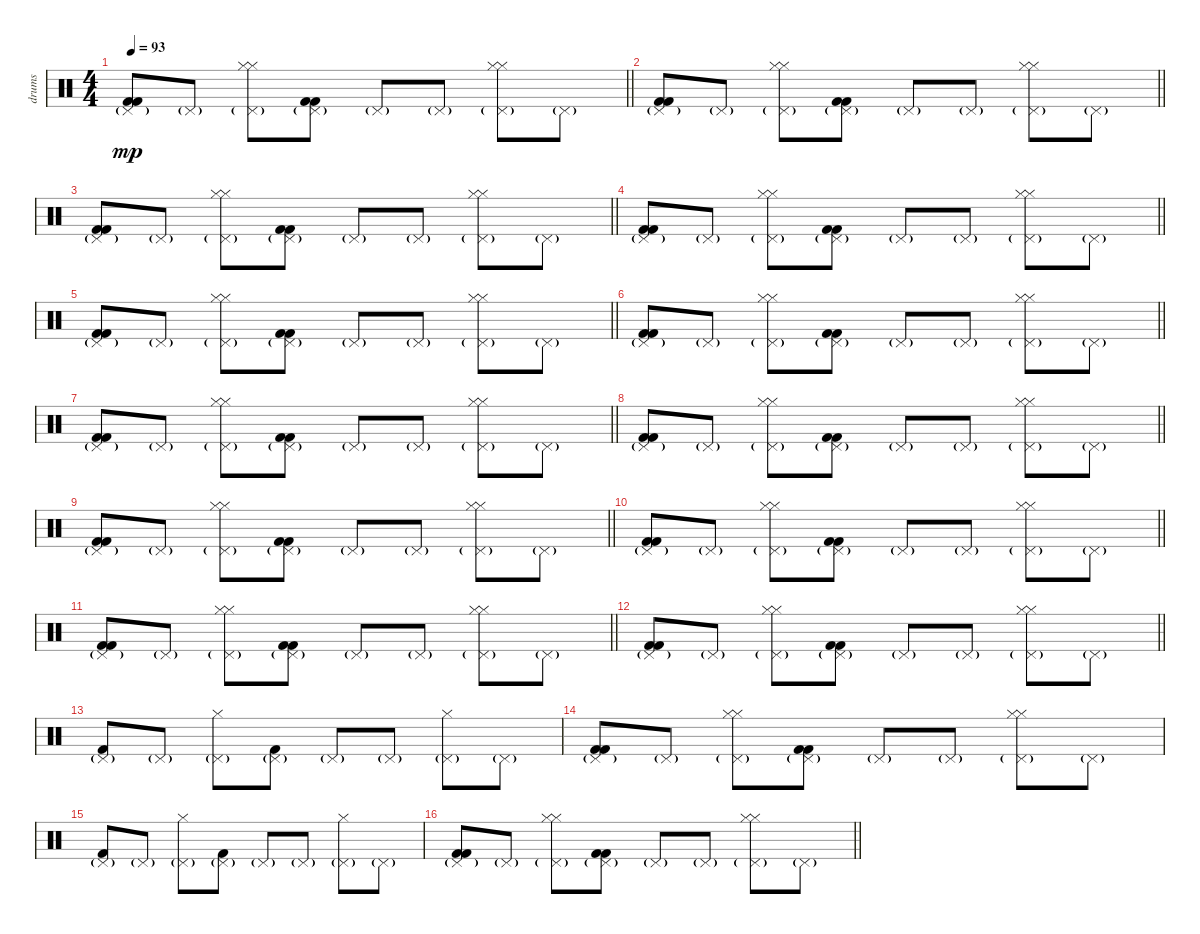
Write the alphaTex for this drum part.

\track ("drums" "drums") {instrument percussion}
\staff {score}
\articulation defaults
\ts (4 4)
\tempo 93
\clef neutral
\barLineRight lightlight
\ks c
("Kick (hit) 2" "Kick (hit) 2" "Pedal Hi-Hat (hit)"{g}).8{dy mp} "Pedal Hi-Hat (hit)"{g}.8 ("Hi-Hat (closed)" "Hi-Hat (closed)" "Pedal Hi-Hat (hit)"{g}).8 ("Kick (hit) 2" "Kick (hit) 2" "Pedal Hi-Hat (hit)"{g}).8 "Pedal Hi-Hat (hit)"{g}.8 "Pedal Hi-Hat (hit)"{g}.8 ("Hi-Hat (closed)" "Hi-Hat (closed)" "Pedal Hi-Hat (hit)"{g}).8 "Pedal Hi-Hat (hit)"{g}.8 |
\barLineRight lightlight
("Kick (hit) 2" "Kick (hit) 2" "Pedal Hi-Hat (hit)"{g}).8 "Pedal Hi-Hat (hit)"{g}.8 ("Hi-Hat (closed)" "Hi-Hat (closed)" "Pedal Hi-Hat (hit)"{g}).8 ("Kick (hit) 2" "Kick (hit) 2" "Pedal Hi-Hat (hit)"{g}).8 "Pedal Hi-Hat (hit)"{g}.8 "Pedal Hi-Hat (hit)"{g}.8 ("Hi-Hat (closed)" "Hi-Hat (closed)" "Pedal Hi-Hat (hit)"{g}).8 "Pedal Hi-Hat (hit)"{g}.8 |
\barLineRight lightlight
("Kick (hit) 2" "Kick (hit) 2" "Pedal Hi-Hat (hit)"{g}).8 "Pedal Hi-Hat (hit)"{g}.8 ("Hi-Hat (closed)" "Hi-Hat (closed)" "Pedal Hi-Hat (hit)"{g}).8 ("Kick (hit) 2" "Kick (hit) 2" "Pedal Hi-Hat (hit)"{g}).8 "Pedal Hi-Hat (hit)"{g}.8 "Pedal Hi-Hat (hit)"{g}.8 ("Hi-Hat (closed)" "Hi-Hat (closed)" "Pedal Hi-Hat (hit)"{g}).8 "Pedal Hi-Hat (hit)"{g}.8 |
\barLineRight lightlight
("Kick (hit) 2" "Kick (hit) 2" "Pedal Hi-Hat (hit)"{g}).8 "Pedal Hi-Hat (hit)"{g}.8 ("Hi-Hat (closed)" "Hi-Hat (closed)" "Pedal Hi-Hat (hit)"{g}).8 ("Kick (hit) 2" "Kick (hit) 2" "Pedal Hi-Hat (hit)"{g}).8 "Pedal Hi-Hat (hit)"{g}.8 "Pedal Hi-Hat (hit)"{g}.8 ("Hi-Hat (closed)" "Hi-Hat (closed)" "Pedal Hi-Hat (hit)"{g}).8 "Pedal Hi-Hat (hit)"{g}.8 |
\barLineRight lightlight
("Kick (hit) 2" "Kick (hit) 2" "Pedal Hi-Hat (hit)"{g}).8 "Pedal Hi-Hat (hit)"{g}.8 ("Hi-Hat (closed)" "Hi-Hat (closed)" "Pedal Hi-Hat (hit)"{g}).8 ("Kick (hit) 2" "Kick (hit) 2" "Pedal Hi-Hat (hit)"{g}).8 "Pedal Hi-Hat (hit)"{g}.8 "Pedal Hi-Hat (hit)"{g}.8 ("Hi-Hat (closed)" "Hi-Hat (closed)" "Pedal Hi-Hat (hit)"{g}).8 "Pedal Hi-Hat (hit)"{g}.8 |
\barLineRight lightlight
("Kick (hit) 2" "Kick (hit) 2" "Pedal Hi-Hat (hit)"{g}).8 "Pedal Hi-Hat (hit)"{g}.8 ("Hi-Hat (closed)" "Hi-Hat (closed)" "Pedal Hi-Hat (hit)"{g}).8 ("Kick (hit) 2" "Kick (hit) 2" "Pedal Hi-Hat (hit)"{g}).8 "Pedal Hi-Hat (hit)"{g}.8 "Pedal Hi-Hat (hit)"{g}.8 ("Hi-Hat (closed)" "Hi-Hat (closed)" "Pedal Hi-Hat (hit)"{g}).8 "Pedal Hi-Hat (hit)"{g}.8 |
\barLineRight lightlight
("Kick (hit) 2" "Kick (hit) 2" "Pedal Hi-Hat (hit)"{g}).8 "Pedal Hi-Hat (hit)"{g}.8 ("Hi-Hat (closed)" "Hi-Hat (closed)" "Pedal Hi-Hat (hit)"{g}).8 ("Kick (hit) 2" "Kick (hit) 2" "Pedal Hi-Hat (hit)"{g}).8 "Pedal Hi-Hat (hit)"{g}.8 "Pedal Hi-Hat (hit)"{g}.8 ("Hi-Hat (closed)" "Hi-Hat (closed)" "Pedal Hi-Hat (hit)"{g}).8 "Pedal Hi-Hat (hit)"{g}.8 |
\barLineRight lightlight
("Kick (hit) 2" "Kick (hit) 2" "Pedal Hi-Hat (hit)"{g}).8 "Pedal Hi-Hat (hit)"{g}.8 ("Hi-Hat (closed)" "Hi-Hat (closed)" "Pedal Hi-Hat (hit)"{g}).8 ("Kick (hit) 2" "Kick (hit) 2" "Pedal Hi-Hat (hit)"{g}).8 "Pedal Hi-Hat (hit)"{g}.8 "Pedal Hi-Hat (hit)"{g}.8 ("Hi-Hat (closed)" "Hi-Hat (closed)" "Pedal Hi-Hat (hit)"{g}).8 "Pedal Hi-Hat (hit)"{g}.8 |
\barLineRight lightlight
("Kick (hit) 2" "Kick (hit) 2" "Pedal Hi-Hat (hit)"{g}).8 "Pedal Hi-Hat (hit)"{g}.8 ("Hi-Hat (closed)" "Hi-Hat (closed)" "Pedal Hi-Hat (hit)"{g}).8 ("Kick (hit) 2" "Kick (hit) 2" "Pedal Hi-Hat (hit)"{g}).8 "Pedal Hi-Hat (hit)"{g}.8 "Pedal Hi-Hat (hit)"{g}.8 ("Hi-Hat (closed)" "Hi-Hat (closed)" "Pedal Hi-Hat (hit)"{g}).8 "Pedal Hi-Hat (hit)"{g}.8 |
\barLineRight lightlight
("Kick (hit) 2" "Kick (hit) 2" "Pedal Hi-Hat (hit)"{g}).8 "Pedal Hi-Hat (hit)"{g}.8 ("Hi-Hat (closed)" "Hi-Hat (closed)" "Pedal Hi-Hat (hit)"{g}).8 ("Kick (hit) 2" "Kick (hit) 2" "Pedal Hi-Hat (hit)"{g}).8 "Pedal Hi-Hat (hit)"{g}.8 "Pedal Hi-Hat (hit)"{g}.8 ("Hi-Hat (closed)" "Hi-Hat (closed)" "Pedal Hi-Hat (hit)"{g}).8 "Pedal Hi-Hat (hit)"{g}.8 |
\barLineRight lightlight
("Kick (hit) 2" "Kick (hit) 2" "Pedal Hi-Hat (hit)"{g}).8 "Pedal Hi-Hat (hit)"{g}.8 ("Hi-Hat (closed)" "Hi-Hat (closed)" "Pedal Hi-Hat (hit)"{g}).8 ("Kick (hit) 2" "Kick (hit) 2" "Pedal Hi-Hat (hit)"{g}).8 "Pedal Hi-Hat (hit)"{g}.8 "Pedal Hi-Hat (hit)"{g}.8 ("Hi-Hat (closed)" "Hi-Hat (closed)" "Pedal Hi-Hat (hit)"{g}).8 "Pedal Hi-Hat (hit)"{g}.8 |
\barLineRight lightlight
("Kick (hit) 2" "Kick (hit) 2" "Pedal Hi-Hat (hit)"{g}).8 "Pedal Hi-Hat (hit)"{g}.8 ("Hi-Hat (closed)" "Hi-Hat (closed)" "Pedal Hi-Hat (hit)"{g}).8 ("Kick (hit) 2" "Kick (hit) 2" "Pedal Hi-Hat (hit)"{g}).8 "Pedal Hi-Hat (hit)"{g}.8 "Pedal Hi-Hat (hit)"{g}.8 ("Hi-Hat (closed)" "Hi-Hat (closed)" "Pedal Hi-Hat (hit)"{g}).8 "Pedal Hi-Hat (hit)"{g}.8 |
("Kick (hit) 2" "Pedal Hi-Hat (hit)"{g}).8 "Pedal Hi-Hat (hit)"{g}.8 ("Hi-Hat (closed)" "Pedal Hi-Hat (hit)"{g}).8 ("Kick (hit) 2" "Pedal Hi-Hat (hit)"{g}).8 "Pedal Hi-Hat (hit)"{g}.8 "Pedal Hi-Hat (hit)"{g}.8 ("Hi-Hat (closed)" "Pedal Hi-Hat (hit)"{g}).8 "Pedal Hi-Hat (hit)"{g}.8 |
("Kick (hit) 2" "Kick (hit) 2" "Pedal Hi-Hat (hit)"{g}).8 "Pedal Hi-Hat (hit)"{g}.8 ("Hi-Hat (closed)" "Hi-Hat (closed)" "Pedal Hi-Hat (hit)"{g}).8 ("Kick (hit) 2" "Kick (hit) 2" "Pedal Hi-Hat (hit)"{g}).8 "Pedal Hi-Hat (hit)"{g}.8 "Pedal Hi-Hat (hit)"{g}.8 ("Hi-Hat (closed)" "Hi-Hat (closed)" "Pedal Hi-Hat (hit)"{g}).8 "Pedal Hi-Hat (hit)"{g}.8 |
("Kick (hit) 2" "Pedal Hi-Hat (hit)"{g}).8 "Pedal Hi-Hat (hit)"{g}.8 ("Hi-Hat (closed)" "Pedal Hi-Hat (hit)"{g}).8 ("Kick (hit) 2" "Pedal Hi-Hat (hit)"{g}).8 "Pedal Hi-Hat (hit)"{g}.8 "Pedal Hi-Hat (hit)"{g}.8 ("Hi-Hat (closed)" "Pedal Hi-Hat (hit)"{g}).8 "Pedal Hi-Hat (hit)"{g}.8 |
\barLineRight lightlight
("Kick (hit) 2" "Kick (hit) 2" "Pedal Hi-Hat (hit)"{g}).8 "Pedal Hi-Hat (hit)"{g}.8 ("Hi-Hat (closed)" "Hi-Hat (closed)" "Pedal Hi-Hat (hit)"{g}).8 ("Kick (hit) 2" "Kick (hit) 2" "Pedal Hi-Hat (hit)"{g}).8 "Pedal Hi-Hat (hit)"{g}.8 "Pedal Hi-Hat (hit)"{g}.8 ("Hi-Hat (closed)" "Hi-Hat (closed)" "Pedal Hi-Hat (hit)"{g}).8 "Pedal Hi-Hat (hit)"{g}.8
